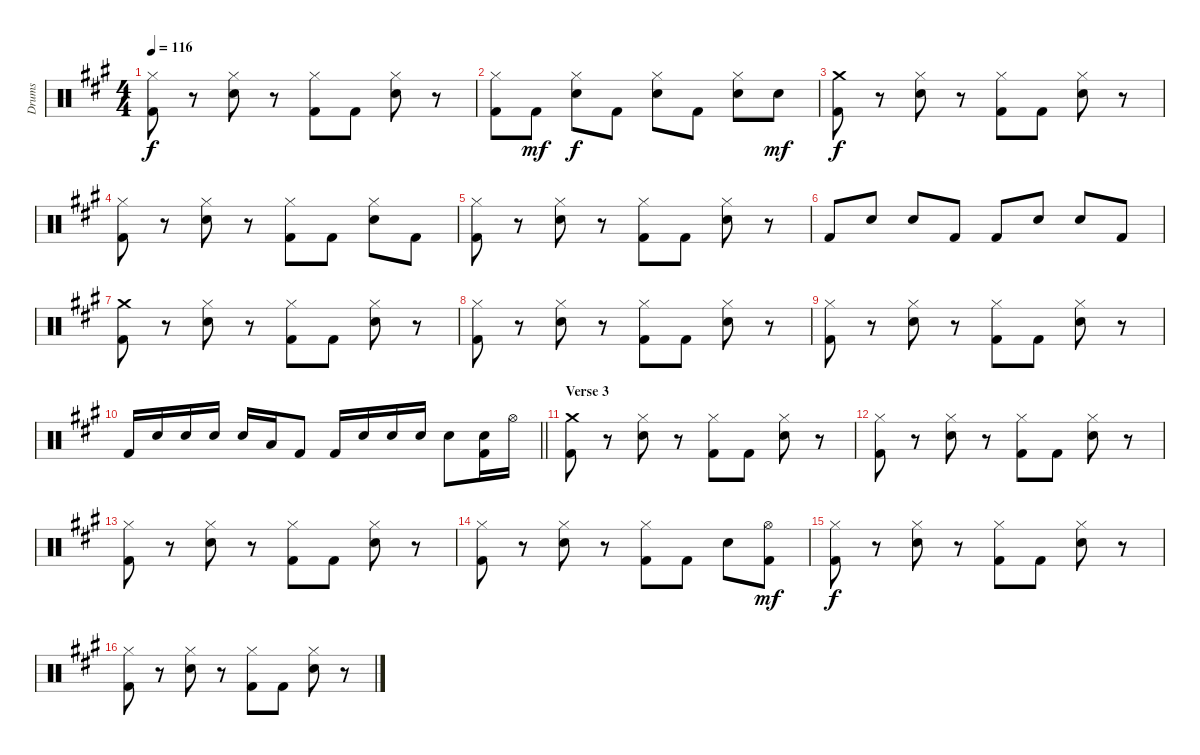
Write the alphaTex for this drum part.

\track ("Drums" "Drums") {instrument percussion}
\staff {score}
\articulation defaults
\ts (4 4)
\tempo 116
\clef neutral
\ks a
("Kick (hit) 2" "Hi-Hat (closed)").8{dy f} r.8 ("Snare (hit) 2" "Hi-Hat (closed)").8 r.8 ("Kick (hit) 2" "Hi-Hat (closed)").8 "Kick (hit) 2".8 ("Snare (hit) 2" "Hi-Hat (closed)").8 r.8 |
("Kick (hit) 2" "Hi-Hat (closed)").8 "Kick (hit) 2".8{dy mf} ("Snare (hit) 2" "Hi-Hat (closed)").8{dy f} "Kick (hit) 2".8 ("Snare (hit) 2" "Hi-Hat (closed)").8 "Kick (hit) 2".8 ("Snare (hit) 2" "Hi-Hat (closed)").8 "Snare (hit) 2".8{dy mf} |
("Crash medium (hit)" "Kick (hit) 2").8{dy f} r.8 ("Snare (hit) 2" "Hi-Hat (closed)").8 r.8 ("Kick (hit) 2" "Hi-Hat (closed)").8 "Kick (hit) 2".8 ("Snare (hit) 2" "Hi-Hat (closed)").8 r.8 |
("Kick (hit) 2" "Hi-Hat (closed)").8 r.8 ("Snare (hit) 2" "Hi-Hat (closed)").8 r.8 ("Kick (hit) 2" "Hi-Hat (closed)").8 "Kick (hit) 2".8 ("Snare (hit) 2" "Hi-Hat (closed)").8 "Kick (hit) 2".8 |
("Kick (hit) 2" "Hi-Hat (closed)").8 r.8 ("Snare (hit) 2" "Hi-Hat (closed)").8 r.8 ("Kick (hit) 2" "Hi-Hat (closed)").8 "Kick (hit) 2".8 ("Snare (hit) 2" "Hi-Hat (closed)").8 r.8 |
"Kick (hit) 2".8 "Snare (hit) 2".8 "Snare (hit) 2".8 "Kick (hit) 2".8 "Kick (hit) 2".8 "Snare (hit) 2".8 "Snare (hit) 2".8 "Kick (hit) 2".8 |
("Crash medium (hit)" "Kick (hit) 2").8 r.8 ("Snare (hit) 2" "Hi-Hat (closed)").8 r.8 ("Kick (hit) 2" "Hi-Hat (closed)").8 "Kick (hit) 2".8 ("Snare (hit) 2" "Hi-Hat (closed)").8 r.8 |
("Kick (hit) 2" "Hi-Hat (closed)").8 r.8 ("Snare (hit) 2" "Hi-Hat (closed)").8 r.8 ("Kick (hit) 2" "Hi-Hat (closed)").8 "Kick (hit) 2".8 ("Snare (hit) 2" "Hi-Hat (closed)").8 r.8 |
("Kick (hit) 2" "Hi-Hat (closed)").8 r.8 ("Snare (hit) 2" "Hi-Hat (closed)").8 r.8 ("Kick (hit) 2" "Hi-Hat (closed)").8 "Kick (hit) 2".8 ("Snare (hit) 2" "Hi-Hat (closed)").8 r.8 |
\barLineRight lightlight "Kick (hit) 2".16 "Snare (hit) 2".16 "Snare (hit) 2".16 "Snare (hit) 2".16 "Snare (hit) 2".16 "Low Tom (hit)".16 "Kick (hit) 2".8 "Kick (hit) 2".16 "Snare (hit) 2".16 "Snare (hit) 2".16 "Snare (hit) 2".16 "Snare (hit) 2".8
("Kick (hit) 2" "Snare (hit) 2").16 "Hi-Hat (open)".16 |
\section ("" "Verse 3")
("Crash medium (hit)" "Kick (hit) 2").8 r.8 ("Snare (hit) 2" "Hi-Hat (closed)").8 r.8 ("Kick (hit) 2" "Hi-Hat (closed)").8 "Kick (hit) 2".8 ("Snare (hit) 2" "Hi-Hat (closed)").8 r.8 |
("Kick (hit) 2" "Hi-Hat (closed)").8 r.8 ("Snare (hit) 2" "Hi-Hat (closed)").8 r.8 ("Kick (hit) 2" "Hi-Hat (closed)").8 "Kick (hit) 2".8 ("Snare (hit) 2" "Hi-Hat (closed)").8 r.8 |
("Kick (hit) 2" "Hi-Hat (closed)").8 r.8 ("Snare (hit) 2" "Hi-Hat (closed)").8 r.8 ("Kick (hit) 2" "Hi-Hat (closed)").8 "Kick (hit) 2".8 ("Snare (hit) 2" "Hi-Hat (closed)").8 r.8 |
("Kick (hit) 2" "Hi-Hat (closed)").8 r.8 ("Snare (hit) 2" "Hi-Hat (closed)").8 r.8 ("Kick (hit) 2" "Hi-Hat (closed)").8 "Kick (hit) 2".8 "Snare (hit) 2".8 ("Kick (hit) 2" "Hi-Hat (open)").8{dy mf} |
("Kick (hit) 2" "Hi-Hat (closed)").8{dy f} r.8 ("Snare (hit) 2" "Hi-Hat (closed)").8 r.8 ("Kick (hit) 2" "Hi-Hat (closed)").8 "Kick (hit) 2".8 ("Snare (hit) 2" "Hi-Hat (closed)").8 r.8 |
("Kick (hit) 2" "Hi-Hat (closed)").8 r.8 ("Snare (hit) 2" "Hi-Hat (closed)").8 r.8 ("Kick (hit) 2" "Hi-Hat (closed)").8 "Kick (hit) 2".8 ("Snare (hit) 2" "Hi-Hat (closed)").8 r.8
